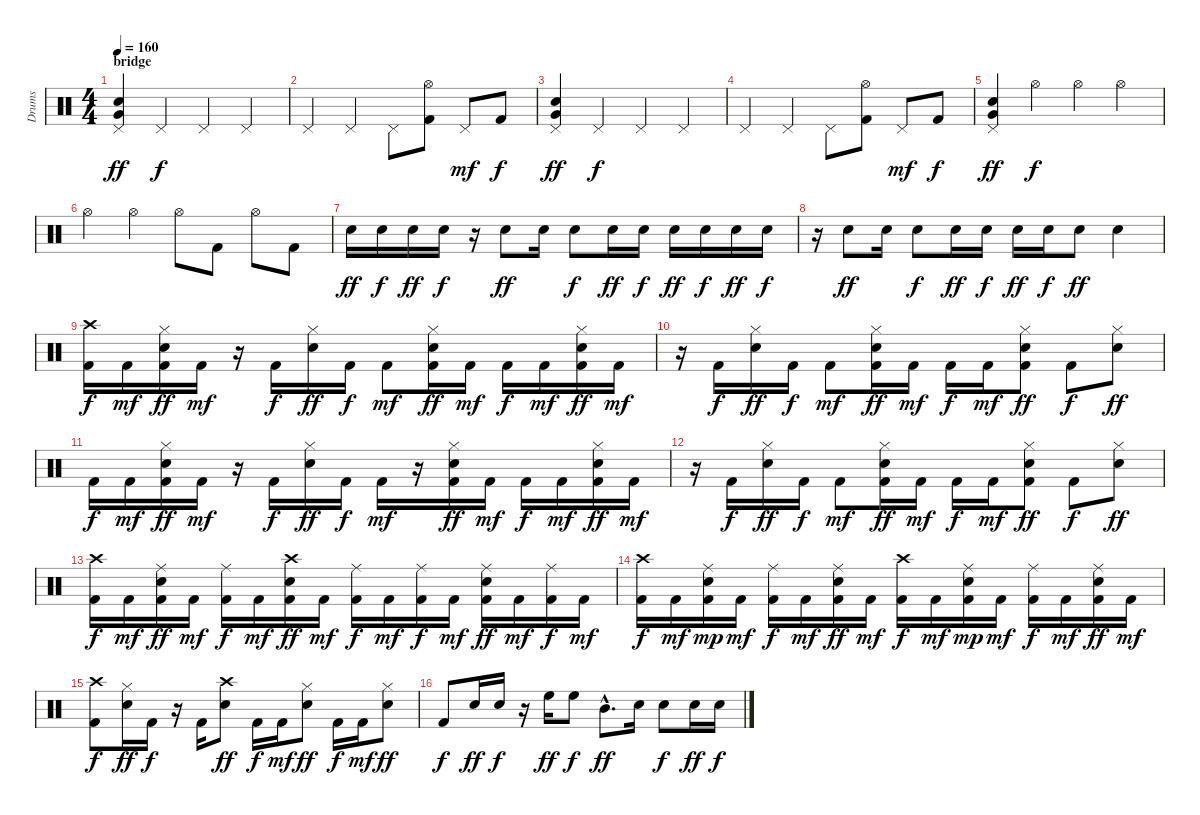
\track ("Drums" "Drums") {instrument percussion}
\staff {score}
\articulation defaults
\ts (4 4)
\section ("" "bridge")
\tempo 160
\clef neutral
\ks c
("Very Low Tom (hit)" "Snare (hit) 2" "Pedal Hi-Hat (hit)").4{dy ff} "Pedal Hi-Hat (hit)".4{dy f} "Pedal Hi-Hat (hit)".4 "Pedal Hi-Hat (hit)".4 |
"Pedal Hi-Hat (hit)".4 "Pedal Hi-Hat (hit)".4 "Pedal Hi-Hat (hit)".8 ("Hi-Hat (open)" "Kick (hit) 2").8 "Pedal Hi-Hat (hit)".8{dy mf} "Kick (hit) 2".8{dy f} |
("Very Low Tom (hit)" "Snare (hit) 2" "Pedal Hi-Hat (hit)").4{dy ff} "Pedal Hi-Hat (hit)".4{dy f} "Pedal Hi-Hat (hit)".4 "Pedal Hi-Hat (hit)".4 |
"Pedal Hi-Hat (hit)".4 "Pedal Hi-Hat (hit)".4 "Pedal Hi-Hat (hit)".8 ("Hi-Hat (open)" "Kick (hit) 2").8 "Pedal Hi-Hat (hit)".8{dy mf} "Kick (hit) 2".8{dy f} |
("Very Low Tom (hit)" "Snare (hit) 2" "Pedal Hi-Hat (hit)").4{dy ff} "Hi-Hat (open)".4{dy f} "Hi-Hat (open)".4 "Hi-Hat (open)".4 |
"Hi-Hat (open)".4 "Hi-Hat (open)".4 "Hi-Hat (open)".8 "Kick (hit) 2".8 "Hi-Hat (open)".8 "Kick (hit) 2".8 |
"Snare (hit) 2".16{dy ff} "Snare (hit) 2".16{dy f} "Snare (hit) 2".16{dy ff} "Snare (hit) 2".16{dy f} r.16 "Snare (hit) 2".8{dy ff} "Snare (hit) 2".16 "Snare (hit) 2".8{dy f} "Snare (hit) 2".16{dy ff} "Snare (hit) 2".16{dy f} "Snare (hit) 2".16{dy ff} "Snare (hit) 2".16{dy f} "Snare (hit) 2".16{dy ff} "Snare (hit) 2".16{dy f} |
r.16 "Snare (hit) 2".8{dy ff} "Snare (hit) 2".16 "Snare (hit) 2".8{dy f} "Snare (hit) 2".16{dy ff} "Snare (hit) 2".16{dy f} "Snare (hit) 2".16{dy ff} "Snare (hit) 2".16{dy f} "Snare (hit) 2".8{dy ff} "Snare (hit) 2".4 |
("Crash high (hit)" "Kick (hit) 2").16{dy f} "Kick (hit) 2".16{dy mf} ("Snare (hit) 2" "Hi-Hat (closed)" "Kick (hit) 2").16{dy ff} "Kick (hit) 2".16{dy mf} r.16 "Kick (hit) 2".16{dy f} ("Snare (hit) 2" "Hi-Hat (closed)").16{dy ff} "Kick (hit) 2".16{dy f} "Kick (hit) 2".8{dy mf} ("Snare (hit) 2" "Hi-Hat (closed)" "Kick (hit) 2").16{dy ff} "Kick (hit) 2".16{dy mf} "Kick (hit) 2".16{dy f} "Kick (hit) 2".16{dy mf} ("Snare (hit) 2" "Hi-Hat (closed)" "Kick (hit) 2").16{dy ff} "Kick (hit) 2".16{dy mf} |
r.16 "Kick (hit) 2".16{dy f} ("Snare (hit) 2" "Hi-Hat (closed)").16{dy ff} "Kick (hit) 2".16{dy f} "Kick (hit) 2".8{dy mf} ("Snare (hit) 2" "Hi-Hat (closed)" "Kick (hit) 2").16{dy ff} "Kick (hit) 2".16{dy mf} "Kick (hit) 2".16{dy f} "Kick (hit) 2".16{dy mf} ("Snare (hit) 2" "Hi-Hat (closed)" "Kick (hit) 2").8{dy ff} "Kick (hit) 2".8{dy f} ("Snare (hit) 2" "Hi-Hat (closed)").8{dy ff} |
"Kick (hit) 2".16{dy f} "Kick (hit) 2".16{dy mf} ("Snare (hit) 2" "Hi-Hat (closed)" "Kick (hit) 2").16{dy ff} "Kick (hit) 2".16{dy mf} r.16 "Kick (hit) 2".16{dy f} ("Snare (hit) 2" "Hi-Hat (closed)").16{dy ff} "Kick (hit) 2".16{dy f} "Kick (hit) 2".16{dy mf} r.16 ("Snare (hit) 2" "Hi-Hat (closed)" "Kick (hit) 2").16{dy ff} "Kick (hit) 2".16{dy mf} "Kick (hit) 2".16{dy f} "Kick (hit) 2".16{dy mf} ("Snare (hit) 2" "Hi-Hat (closed)" "Kick (hit) 2").16{dy ff} "Kick (hit) 2".16{dy mf} |
r.16 "Kick (hit) 2".16{dy f} ("Snare (hit) 2" "Hi-Hat (closed)").16{dy ff} "Kick (hit) 2".16{dy f} "Kick (hit) 2".8{dy mf} ("Snare (hit) 2" "Hi-Hat (closed)" "Kick (hit) 2").16{dy ff} "Kick (hit) 2".16{dy mf} "Kick (hit) 2".16{dy f} "Kick (hit) 2".16{dy mf} ("Snare (hit) 2" "Hi-Hat (closed)" "Kick (hit) 2").8{dy ff} "Kick (hit) 2".8{dy f} ("Snare (hit) 2" "Hi-Hat (closed)").8{dy ff} |
("Crash high (hit)" "Kick (hit) 2").16{dy f} "Kick (hit) 2".16{dy mf} ("Snare (hit) 2" "Ride (middle)" "Kick (hit) 2").16{dy ff} "Kick (hit) 2".16{dy mf} ("Ride (middle)" "Kick (hit) 2").16{dy f} "Kick (hit) 2".16{dy mf} ("Snare (hit) 2" "Crash high (hit)" "Kick (hit) 2").16{dy ff} "Kick (hit) 2".16{dy mf} ("Ride (middle)" "Kick (hit) 2").16{dy f} "Kick (hit) 2".16{dy mf} ("Ride (middle)" "Kick (hit) 2").16{dy f} "Kick (hit) 2".16{dy mf} ("Snare (hit) 2" "Ride (middle)" "Kick (hit) 2").16{dy ff} "Kick (hit) 2".16{dy mf} ("Ride (middle)" "Kick (hit) 2").16{dy f} "Kick (hit) 2".16{dy mf} |
("Crash high (hit)" "Kick (hit) 2").16{dy f} "Kick (hit) 2".16{dy mf} ("Snare (hit) 2" "Ride (middle)" "Kick (hit) 2").16{dy mp} "Kick (hit) 2".16{dy mf} ("Ride (middle)" "Kick (hit) 2").16{dy f} "Kick (hit) 2".16{dy mf} ("Ride (middle)" "Snare (hit) 2" "Kick (hit) 2").16{dy ff} "Kick (hit) 2".16{dy mf} ("Crash high (hit)" "Kick (hit) 2").16{dy f} "Kick (hit) 2".16{dy mf} ("Snare (hit) 2" "Ride (middle)" "Kick (hit) 2").16{dy mp} "Kick (hit) 2".16{dy mf} ("Ride (middle)" "Kick (hit) 2").16{dy f} "Kick (hit) 2".16{dy mf} ("Ride (middle)" "Snare (hit) 2" "Kick (hit) 2").16{dy ff} "Kick (hit) 2".16{dy mf} |
("Crash high (hit)" "Kick (hit) 2").8{dy f} ("Snare (hit) 2" "Hi-Hat (closed)").16{dy ff} "Kick (hit) 2".16{dy f} r.16 "Kick (hit) 2".16 ("Crash high (hit)" "Snare (hit) 2").8{dy ff} "Kick (hit) 2".16{dy f} "Kick (hit) 2".16{dy mf} ("Snare (hit) 2" "Hi-Hat (closed)").8{dy ff} "Kick (hit) 2".16{dy f} "Kick (hit) 2".16{dy mf} ("Snare (hit) 2" "Hi-Hat (closed)").8{dy ff} |
"Kick (hit) 2".8{dy f} "Snare (hit) 2".16{dy ff} "Snare (hit) 2".16{dy f} r.16 "High Floor Tom (hit)".16{dy ff} "High Floor Tom (hit)".8{dy f} "Mid Tom (hit)"{hac}.8{d dy ff} "Snare (hit) 2".16 "Snare (hit) 2".8{dy f} "Snare (hit) 2".16{dy ff} "Snare (hit) 2".16{dy f}
